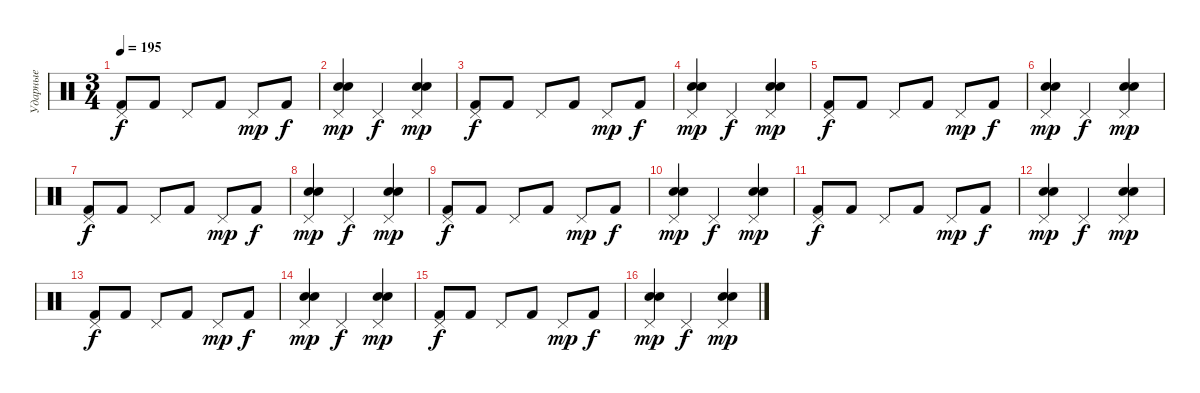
\track ("Ударные" "Ударные") {instrument percussion}
\staff {score}
\articulation defaults
\ts (3 4)
\tempo 195
\clef neutral
\ks c
("Pedal Hi-Hat (hit)" "Kick (hit) 2").8{dy f} "Kick (hit) 2".8 "Pedal Hi-Hat (hit)".8 "Kick (hit) 2".8 "Pedal Hi-Hat (hit)".8{dy mp} "Kick (hit) 2".8{dy f} |
("Pedal Hi-Hat (hit)" "Electric Snare (hit)" "Snare (hit) 2").4{dy mp} "Pedal Hi-Hat (hit)".4{dy f} ("Pedal Hi-Hat (hit)" "Electric Snare (hit)" "Snare (hit) 2").4{dy mp} |
("Pedal Hi-Hat (hit)" "Kick (hit) 2").8{dy f} "Kick (hit) 2".8 "Pedal Hi-Hat (hit)".8 "Kick (hit) 2".8 "Pedal Hi-Hat (hit)".8{dy mp} "Kick (hit) 2".8{dy f} |
("Pedal Hi-Hat (hit)" "Electric Snare (hit)" "Snare (hit) 2").4{dy mp} "Pedal Hi-Hat (hit)".4{dy f} ("Pedal Hi-Hat (hit)" "Electric Snare (hit)" "Snare (hit) 2").4{dy mp} |
("Pedal Hi-Hat (hit)" "Kick (hit) 2").8{dy f} "Kick (hit) 2".8 "Pedal Hi-Hat (hit)".8 "Kick (hit) 2".8 "Pedal Hi-Hat (hit)".8{dy mp} "Kick (hit) 2".8{dy f} |
("Pedal Hi-Hat (hit)" "Electric Snare (hit)" "Snare (hit) 2").4{dy mp} "Pedal Hi-Hat (hit)".4{dy f} ("Pedal Hi-Hat (hit)" "Electric Snare (hit)" "Snare (hit) 2").4{dy mp} |
("Pedal Hi-Hat (hit)" "Kick (hit) 2").8{dy f} "Kick (hit) 2".8 "Pedal Hi-Hat (hit)".8 "Kick (hit) 2".8 "Pedal Hi-Hat (hit)".8{dy mp} "Kick (hit) 2".8{dy f} |
("Pedal Hi-Hat (hit)" "Electric Snare (hit)" "Snare (hit) 2").4{dy mp} "Pedal Hi-Hat (hit)".4{dy f} ("Pedal Hi-Hat (hit)" "Electric Snare (hit)" "Snare (hit) 2").4{dy mp} |
("Pedal Hi-Hat (hit)" "Kick (hit) 2").8{dy f} "Kick (hit) 2".8 "Pedal Hi-Hat (hit)".8 "Kick (hit) 2".8 "Pedal Hi-Hat (hit)".8{dy mp} "Kick (hit) 2".8{dy f} |
("Pedal Hi-Hat (hit)" "Electric Snare (hit)" "Snare (hit) 2").4{dy mp} "Pedal Hi-Hat (hit)".4{dy f} ("Pedal Hi-Hat (hit)" "Electric Snare (hit)" "Snare (hit) 2").4{dy mp} |
("Pedal Hi-Hat (hit)" "Kick (hit) 2").8{dy f} "Kick (hit) 2".8 "Pedal Hi-Hat (hit)".8 "Kick (hit) 2".8 "Pedal Hi-Hat (hit)".8{dy mp} "Kick (hit) 2".8{dy f} |
("Pedal Hi-Hat (hit)" "Electric Snare (hit)" "Snare (hit) 2").4{dy mp} "Pedal Hi-Hat (hit)".4{dy f} ("Pedal Hi-Hat (hit)" "Electric Snare (hit)" "Snare (hit) 2").4{dy mp} |
("Pedal Hi-Hat (hit)" "Kick (hit) 2").8{dy f} "Kick (hit) 2".8 "Pedal Hi-Hat (hit)".8 "Kick (hit) 2".8 "Pedal Hi-Hat (hit)".8{dy mp} "Kick (hit) 2".8{dy f} |
("Pedal Hi-Hat (hit)" "Electric Snare (hit)" "Snare (hit) 2").4{dy mp} "Pedal Hi-Hat (hit)".4{dy f} ("Pedal Hi-Hat (hit)" "Electric Snare (hit)" "Snare (hit) 2").4{dy mp} |
("Pedal Hi-Hat (hit)" "Kick (hit) 2").8{dy f} "Kick (hit) 2".8 "Pedal Hi-Hat (hit)".8 "Kick (hit) 2".8 "Pedal Hi-Hat (hit)".8{dy mp} "Kick (hit) 2".8{dy f} |
("Pedal Hi-Hat (hit)" "Electric Snare (hit)" "Snare (hit) 2").4{dy mp} "Pedal Hi-Hat (hit)".4{dy f} ("Pedal Hi-Hat (hit)" "Electric Snare (hit)" "Snare (hit) 2").4{dy mp}
